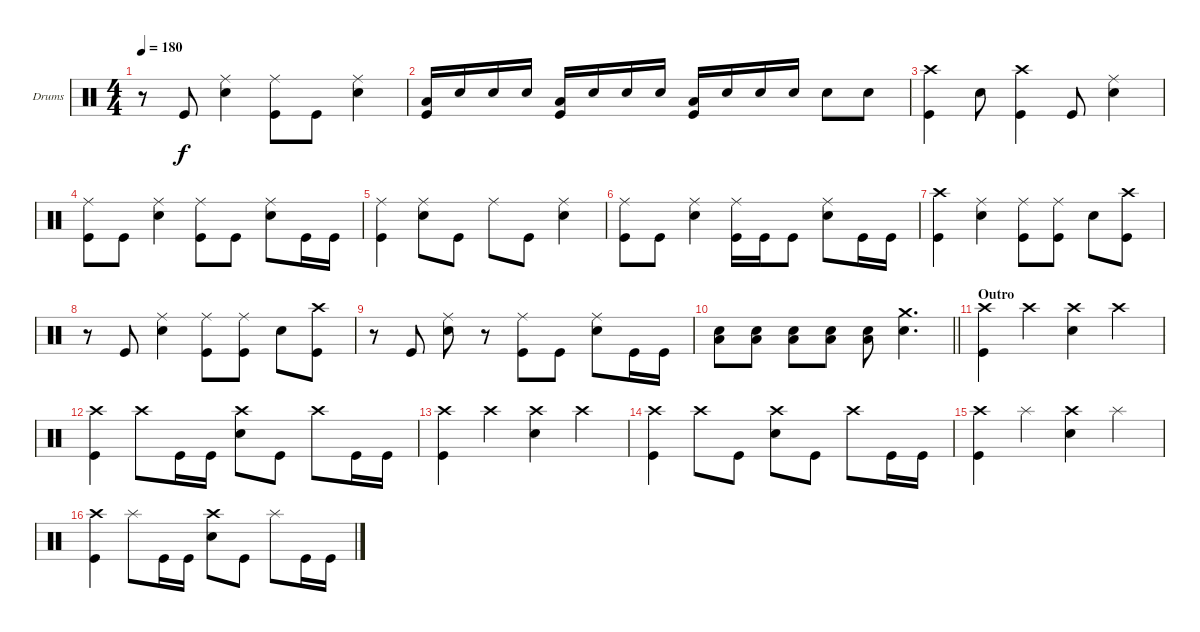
\bracketExtendMode groupsimilarinstruments
\firstSystemTrackNameOrientation horizontal
\otherSystemsTrackNameOrientation horizontal
\track ("Drumkit" "Drums") {instrument percussion}
\staff {score}
\articulation defaults
\ts (4 4)
\tempo 180
\clef neutral
\ks c
r.8{dy f} "Kick (hit)".8 ("Ride (middle)" "Snare (hit) 2").4 ("Ride (middle)" "Kick (hit)").8 "Kick (hit)".8 ("Ride (middle)" "Snare (hit) 2").4 |
("Low Tom (hit)" "Kick (hit)").16 "Snare (hit) 2".16 "Snare (hit) 2".16 "Snare (hit) 2".16 ("Low Tom (hit)" "Kick (hit)").16 "Snare (hit) 2".16 "Snare (hit) 2".16 "Snare (hit) 2".16 ("Low Tom (hit)" "Kick (hit)").16 "Snare (hit) 2".16 "Snare (hit) 2".16 "Snare (hit) 2".16 "Snare (hit) 2".8 "Snare (hit) 2".8 |
("Crash high (hit)" "Kick (hit)").4 "Snare (hit) 2".8 ("Crash high (hit)" "Kick (hit)").4 "Kick (hit)".8 ("Ride (middle)" "Snare (hit) 2").4 |
("Ride (middle)" "Kick (hit)").8 "Kick (hit)".8 ("Ride (middle)" "Snare (hit) 2").4 ("Ride (middle)" "Kick (hit)").8 "Kick (hit)".8 ("Ride (middle)" "Snare (hit) 2").8 "Kick (hit)".16 "Kick (hit)".16 |
("Ride (middle)" "Kick (hit)").4 ("Ride (middle)" "Snare (hit) 2").8 "Kick (hit)".8 "Ride (middle)".8 "Kick (hit)".8 ("Ride (middle)" "Snare (hit) 2").4 |
("Ride (middle)" "Kick (hit)").8 "Kick (hit)".8 ("Ride (middle)" "Snare (hit) 2").4 ("Ride (middle)" "Kick (hit)").16 "Kick (hit)".16 "Kick (hit)".8 ("Ride (middle)" "Snare (hit) 2").8 "Kick (hit)".16 "Kick (hit)".16 |
("Crash high (hit)" "Kick (hit)").4 ("Ride (middle)" "Snare (hit) 2").4 ("Ride (middle)" "Kick (hit)").8 ("Ride (middle)" "Kick (hit)").8 "Snare (hit) 2".8 ("Crash high (hit)" "Kick (hit)").8 |
r.8 "Kick (hit)".8 ("Ride (middle)" "Snare (hit) 2").4 ("Ride (middle)" "Kick (hit)").8 ("Ride (middle)" "Kick (hit)").8 "Snare (hit) 2".8 ("Crash high (hit)" "Kick (hit)").8 |
r.8 "Kick (hit)".8 ("Ride (middle)" "Snare (hit) 2").8 r.8 ("Ride (middle)" "Kick (hit)").8 "Kick (hit)".8 ("Ride (middle)" "Snare (hit) 2").8 "Kick (hit)".16 "Kick (hit)".16 |
\barLineRight lightlight
("Low Tom (hit)" "Snare (hit) 2").8 ("Low Tom (hit)" "Snare (hit) 2").8 ("Low Tom (hit)" "Snare (hit) 2").8 ("Low Tom (hit)" "Snare (hit) 2").8 ("Low Tom (hit)" "Snare (hit) 2").8 ("Crash medium (hit)" "Snare (hit) 2").4{d} |
\section ("" "Outro")
("Crash high (hit)" "Kick (hit)").4 "Crash high (hit)".4 ("Crash high (hit)" "Snare (hit) 2").4 "Crash high (hit)".4 |
("Crash high (hit)" "Kick (hit)").4 "Crash high (hit)".8 "Kick (hit)".16 "Kick (hit)".16 ("Crash high (hit)" "Snare (hit) 2").8 "Kick (hit)".8 "Crash high (hit)".8 "Kick (hit)".16 "Kick (hit)".16 |
("Crash high (hit)" "Kick (hit)").4 "Crash high (hit)".4 ("Crash high (hit)" "Snare (hit) 2").4 "Crash high (hit)".4 |
("Crash high (hit)" "Kick (hit)").4 "Crash high (hit)".8 "Kick (hit)".8 ("Crash high (hit)" "Snare (hit) 2").8 "Kick (hit)".8 "Crash high (hit)".8 "Kick (hit)".16 "Kick (hit)".16 |
("Crash high (hit)" "Kick (hit)").4 "Splash (hit)".4 ("Crash high (hit)" "Snare (hit) 2").4 "Splash (hit)".4 |
("Crash high (hit)" "Kick (hit)").4 "Splash (hit)".8 "Kick (hit)".16 "Kick (hit)".16 ("Crash high (hit)" "Snare (hit) 2").8 "Kick (hit)".8 "Splash (hit)".8 "Kick (hit)".16 "Kick (hit)".16
